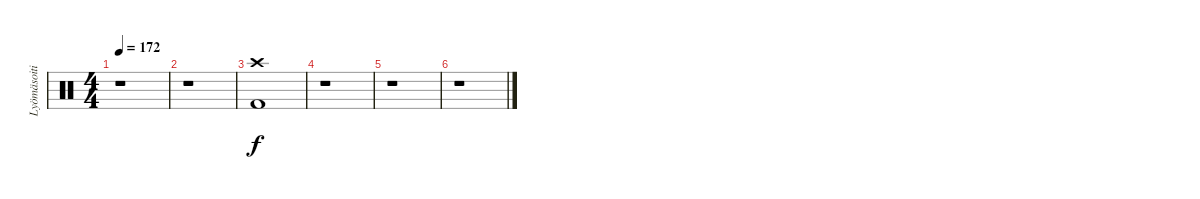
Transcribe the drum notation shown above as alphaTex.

\track ("Lyömäsoitin" "Lyömäsoiti") {instrument percussion}
\staff {score}
\articulation defaults
\ts (4 4)
\tempo 172
\clef neutral
\ks c
r.1{dy f} |
r.1 |
("Kick (hit) 2" "Crash high (hit)").1 |
r.1 |
r.1 |
r.1
